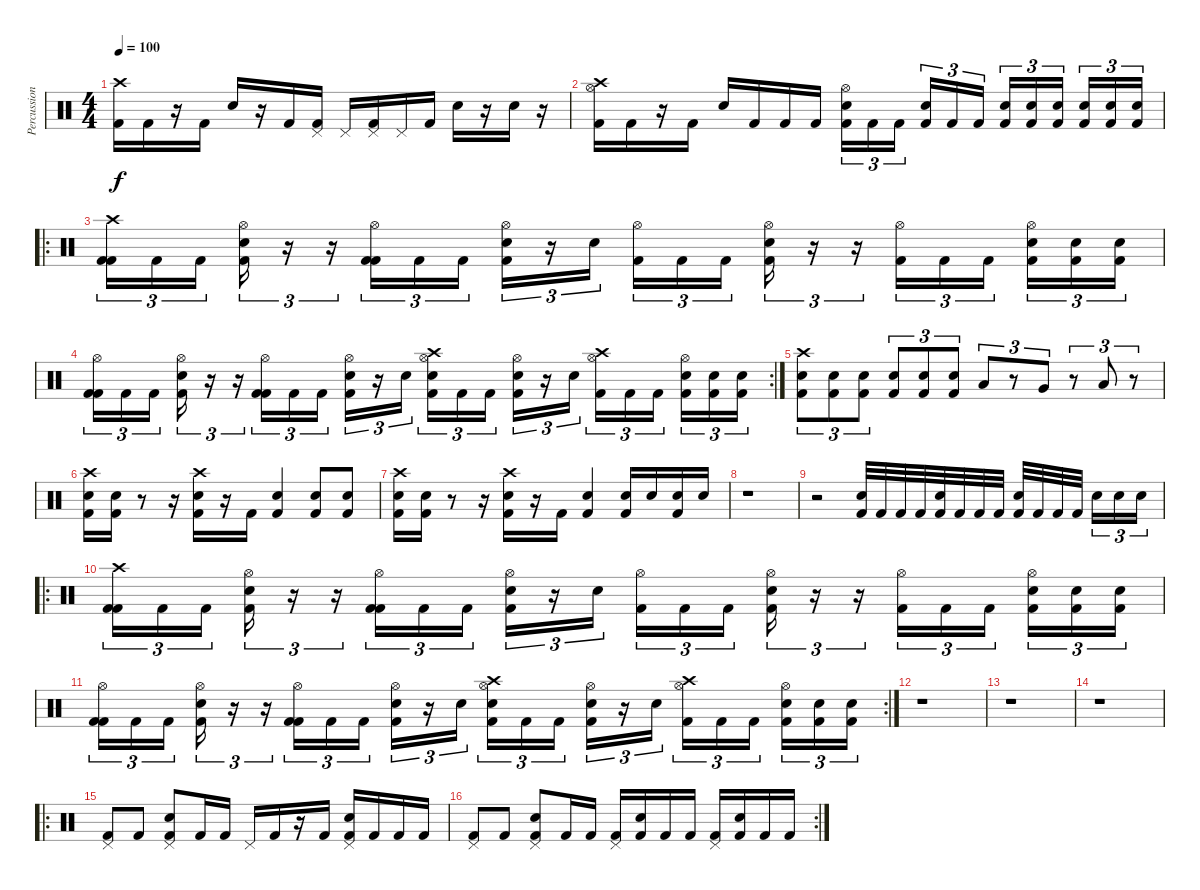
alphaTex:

\track ("Percussion" "Percussion") {instrument percussion}
\staff {score}
\articulation defaults
\ts (4 4)
\tempo 100
\clef neutral
\ks c
("Crash high (hit)" "Kick (hit) 2").16{dy f} "Kick (hit) 2".16 r.16 "Kick (hit) 2".16 "Electric Snare (hit)".16 r.16 "Kick (hit) 2".16 ("Pedal Hi-Hat (hit)" "Kick (hit) 2").16 "Pedal Hi-Hat (hit)".16 ("Pedal Hi-Hat (hit)" "Kick (hit) 2").16 "Pedal Hi-Hat (hit)".16 "Kick (hit) 2".16 "Electric Snare (hit)".16 r.16 "Electric Snare (hit)".16 r.16 |
("Crash high (hit)" "Hi-Hat (open)" "Kick (hit) 2").16 "Kick (hit) 2".16 r.16 "Kick (hit) 2".16 "Electric Snare (hit)".16 "Kick (hit) 2".16 "Kick (hit) 2".16 "Kick (hit) 2".16 ("Hi-Hat (open)" "Electric Snare (hit)" "Kick (hit) 2").16{tu (3 2)} "Kick (hit) 2".16{tu (3 2)} "Kick (hit) 2".16{tu (3 2)} ("Electric Snare (hit)" "Kick (hit) 2").16{tu (3 2)} "Kick (hit) 2".16{tu (3 2)} "Kick (hit) 2".16{tu (3 2)} ("Electric Snare (hit)" "Kick (hit) 2").16{tu (3 2)} ("Electric Snare (hit)" "Kick (hit) 2").16{tu (3 2)} ("Electric Snare (hit)" "Kick (hit) 2").16{tu (3 2)} ("Electric Snare (hit)" "Kick (hit) 2").16{tu (3 2)} ("Electric Snare (hit)" "Kick (hit) 2").16{tu (3 2)} ("Electric Snare (hit)" "Kick (hit) 2").16{tu (3 2)} |
\ro
("Crash high (hit)" "Kick (hit) 2" "Kick (hit) 2").16{tu (3 2)} "Kick (hit) 2".16{tu (3 2)} "Kick (hit) 2".16{tu (3 2)} ("Hi-Hat (open)" "Electric Snare (hit)" "Kick (hit) 2").16{tu (3 2)} r.16{tu (3 2)} r.16{tu (3 2)} ("Hi-Hat (open)" "Kick (hit) 2" "Kick (hit) 2").16{tu (3 2)} "Kick (hit) 2".16{tu (3 2)} "Kick (hit) 2".16{tu (3 2)} ("Hi-Hat (open)" "Electric Snare (hit)" "Kick (hit) 2").16{tu (3 2)} r.16{tu (3 2)} "Electric Snare (hit)".16{tu (3 2)} ("Hi-Hat (open)" "Kick (hit) 2").16{tu (3 2)} "Kick (hit) 2".16{tu (3 2)} "Kick (hit) 2".16{tu (3 2)} ("Hi-Hat (open)" "Electric Snare (hit)" "Kick (hit) 2").16{tu (3 2)} r.16{tu (3 2)} r.16{tu (3 2)} ("Hi-Hat (open)" "Kick (hit) 2").16{tu (3 2)} "Kick (hit) 2".16{tu (3 2)} "Kick (hit) 2".16{tu (3 2)} ("Hi-Hat (open)" "Electric Snare (hit)" "Kick (hit) 2").16{tu (3 2)} ("Electric Snare (hit)" "Kick (hit) 2").16{tu (3 2)} ("Electric Snare (hit)" "Kick (hit) 2").16{tu (3 2)} |
\rc 2
("Hi-Hat (open)" "Kick (hit) 2" "Kick (hit) 2").16{tu (3 2)} "Kick (hit) 2".16{tu (3 2)} "Kick (hit) 2".16{tu (3 2)} ("Hi-Hat (open)" "Electric Snare (hit)" "Kick (hit) 2").16{tu (3 2)} r.16{tu (3 2)} r.16{tu (3 2)} ("Hi-Hat (open)" "Kick (hit) 2" "Kick (hit) 2").16{tu (3 2)} "Kick (hit) 2".16{tu (3 2)} "Kick (hit) 2".16{tu (3 2)} ("Hi-Hat (open)" "Electric Snare (hit)" "Kick (hit) 2").16{tu (3 2)} r.16{tu (3 2)} "Electric Snare (hit)".16{tu (3 2)} ("Crash high (hit)" "Hi-Hat (open)" "Electric Snare (hit)" "Kick (hit) 2").16{tu (3 2)} "Kick (hit) 2".16{tu (3 2)} "Kick (hit) 2".16{tu (3 2)} ("Hi-Hat (open)" "Electric Snare (hit)" "Kick (hit) 2").16{tu (3 2)} r.16{tu (3 2)} "Electric Snare (hit)".16{tu (3 2)} ("Crash high (hit)" "Hi-Hat (open)" "Kick (hit) 2").16{tu (3 2)} "Kick (hit) 2".16{tu (3 2)} "Kick (hit) 2".16{tu (3 2)} ("Hi-Hat (open)" "Electric Snare (hit)" "Kick (hit) 2").16{tu (3 2)} ("Electric Snare (hit)" "Kick (hit) 2").16{tu (3 2)} ("Electric Snare (hit)" "Kick (hit) 2").16{tu (3 2)} |
("Crash high (hit)" "Electric Snare (hit)" "Kick (hit) 2").8{tu (3 2)} ("Electric Snare (hit)" "Kick (hit) 2").8{tu (3 2)} ("Electric Snare (hit)" "Kick (hit) 2").8{tu (3 2)} ("Electric Snare (hit)" "Kick (hit) 2").8{tu (3 2)} ("Electric Snare (hit)" "Kick (hit) 2").8{tu (3 2)} ("Electric Snare (hit)" "Kick (hit) 2").8{tu (3 2)} "Low Tom (hit)".8{tu (3 2)} r.8{tu (3 2)} "Very Low Tom (hit)".8{tu (3 2)} r.8{tu (3 2)} "Low Floor Tom (hit)".8{tu (3 2)} r.8{tu (3 2)} |
("Crash high (hit)" "Electric Snare (hit)" "Kick (hit) 2").16 ("Electric Snare (hit)" "Kick (hit) 2").16 r.8 r.16 ("Crash high (hit)" "Electric Snare (hit)" "Kick (hit) 2").16 r.16 "Kick (hit) 2".16 ("Electric Snare (hit)" "Kick (hit) 2").4 ("Electric Snare (hit)" "Kick (hit) 2").8 ("Electric Snare (hit)" "Kick (hit) 2").8 |
("Crash high (hit)" "Electric Snare (hit)" "Kick (hit) 2").16 ("Electric Snare (hit)" "Kick (hit) 2").16 r.8 r.16 ("Crash high (hit)" "Electric Snare (hit)" "Kick (hit) 2").16 r.16 "Kick (hit) 2".16 ("Electric Snare (hit)" "Kick (hit) 2").4 ("Electric Snare (hit)" "Kick (hit) 2").16 "Electric Snare (hit)".16 ("Electric Snare (hit)" "Kick (hit) 2").16 "Electric Snare (hit)".16 |
r.1 |
r.2 ("Electric Snare (hit)" "Kick (hit) 2").32 "Kick (hit) 2".32 "Kick (hit) 2".32 "Kick (hit) 2".32 ("Electric Snare (hit)" "Kick (hit) 2").32 "Kick (hit) 2".32 "Kick (hit) 2".32 "Kick (hit) 2".32 ("Electric Snare (hit)" "Kick (hit) 2").32 "Kick (hit) 2".32 "Kick (hit) 2".32 "Kick (hit) 2".32 "Electric Snare (hit)".16{tu (3 2)} "Electric Snare (hit)".16{tu (3 2)} "Electric Snare (hit)".16{tu (3 2)} |
\ro
("Crash high (hit)" "Kick (hit) 2" "Kick (hit) 2").16{tu (3 2)} "Kick (hit) 2".16{tu (3 2)} "Kick (hit) 2".16{tu (3 2)} ("Hi-Hat (open)" "Electric Snare (hit)" "Kick (hit) 2").16{tu (3 2)} r.16{tu (3 2)} r.16{tu (3 2)} ("Hi-Hat (open)" "Kick (hit) 2" "Kick (hit) 2").16{tu (3 2)} "Kick (hit) 2".16{tu (3 2)} "Kick (hit) 2".16{tu (3 2)} ("Hi-Hat (open)" "Electric Snare (hit)" "Kick (hit) 2").16{tu (3 2)} r.16{tu (3 2)} "Electric Snare (hit)".16{tu (3 2)} ("Hi-Hat (open)" "Kick (hit) 2").16{tu (3 2)} "Kick (hit) 2".16{tu (3 2)} "Kick (hit) 2".16{tu (3 2)} ("Hi-Hat (open)" "Electric Snare (hit)" "Kick (hit) 2").16{tu (3 2)} r.16{tu (3 2)} r.16{tu (3 2)} ("Hi-Hat (open)" "Kick (hit) 2").16{tu (3 2)} "Kick (hit) 2".16{tu (3 2)} "Kick (hit) 2".16{tu (3 2)} ("Hi-Hat (open)" "Electric Snare (hit)" "Kick (hit) 2").16{tu (3 2)} ("Electric Snare (hit)" "Kick (hit) 2").16{tu (3 2)} ("Electric Snare (hit)" "Kick (hit) 2").16{tu (3 2)} |
\rc 2
("Hi-Hat (open)" "Kick (hit) 2" "Kick (hit) 2").16{tu (3 2)} "Kick (hit) 2".16{tu (3 2)} "Kick (hit) 2".16{tu (3 2)} ("Hi-Hat (open)" "Electric Snare (hit)" "Kick (hit) 2").16{tu (3 2)} r.16{tu (3 2)} r.16{tu (3 2)} ("Hi-Hat (open)" "Kick (hit) 2" "Kick (hit) 2").16{tu (3 2)} "Kick (hit) 2".16{tu (3 2)} "Kick (hit) 2".16{tu (3 2)} ("Hi-Hat (open)" "Electric Snare (hit)" "Kick (hit) 2").16{tu (3 2)} r.16{tu (3 2)} "Electric Snare (hit)".16{tu (3 2)} ("Crash high (hit)" "Hi-Hat (open)" "Electric Snare (hit)" "Kick (hit) 2").16{tu (3 2)} "Kick (hit) 2".16{tu (3 2)} "Kick (hit) 2".16{tu (3 2)} ("Hi-Hat (open)" "Electric Snare (hit)" "Kick (hit) 2").16{tu (3 2)} r.16{tu (3 2)} "Electric Snare (hit)".16{tu (3 2)} ("Crash high (hit)" "Hi-Hat (open)" "Kick (hit) 2").16{tu (3 2)} "Kick (hit) 2".16{tu (3 2)} "Kick (hit) 2".16{tu (3 2)} ("Hi-Hat (open)" "Electric Snare (hit)" "Kick (hit) 2").16{tu (3 2)} ("Electric Snare (hit)" "Kick (hit) 2").16{tu (3 2)} ("Electric Snare (hit)" "Kick (hit) 2").16{tu (3 2)} |
r.1 |
r.1 |
r.1 |
\ro
("Pedal Hi-Hat (hit)" "Kick (hit) 2").8 "Kick (hit) 2".8 ("Pedal Hi-Hat (hit)" "Electric Snare (hit)" "Kick (hit) 2").8 "Kick (hit) 2".16 "Kick (hit) 2".16 "Pedal Hi-Hat (hit)".16 "Kick (hit) 2".16 r.16 "Kick (hit) 2".16 ("Pedal Hi-Hat (hit)" "Electric Snare (hit)" "Kick (hit) 2").16 "Kick (hit) 2".16 "Kick (hit) 2".16 "Kick (hit) 2".16 |
\rc 2
("Pedal Hi-Hat (hit)" "Kick (hit) 2").8 "Kick (hit) 2".8 ("Pedal Hi-Hat (hit)" "Electric Snare (hit)" "Kick (hit) 2").8 "Kick (hit) 2".16 "Kick (hit) 2".16 ("Pedal Hi-Hat (hit)" "Kick (hit) 2").16 ("Electric Snare (hit)" "Kick (hit) 2").16 "Kick (hit) 2".16 "Kick (hit) 2".16 ("Pedal Hi-Hat (hit)" "Kick (hit) 2").16 ("Electric Snare (hit)" "Kick (hit) 2").16 "Kick (hit) 2".16 "Kick (hit) 2".16
